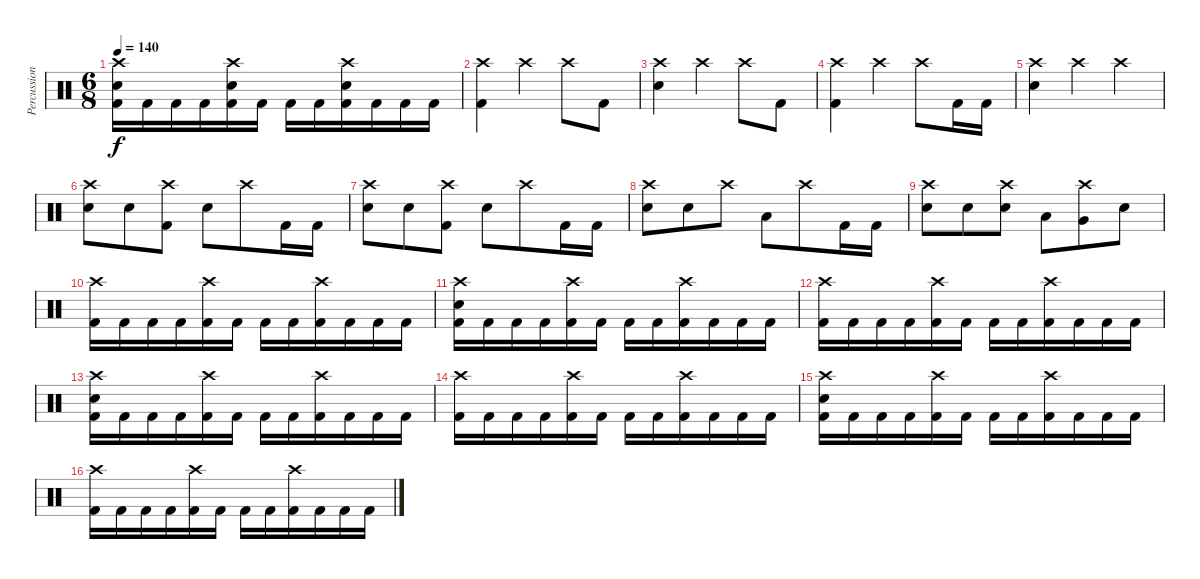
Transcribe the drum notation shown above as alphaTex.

\track ("Percussion" "Percussion") {instrument percussion}
\staff {score}
\articulation defaults
\ts (6 8)
\tempo 140
\clef neutral
\ks c
("Crash high (hit)" "Snare (hit) 2" "Kick (hit) 2").16{dy f} "Kick (hit) 2".16 "Kick (hit) 2".16 "Kick (hit) 2".16 ("Crash high (hit)" "Snare (hit) 2" "Kick (hit) 2").16 "Kick (hit) 2".16 "Kick (hit) 2".16 "Kick (hit) 2".16 ("Crash high (hit)" "Snare (hit) 2" "Kick (hit) 2").16 "Kick (hit) 2".16 "Kick (hit) 2".16 "Kick (hit) 2".16 |
("Crash high (hit)" "Kick (hit) 2").4 "Crash high (hit)".4 "Crash high (hit)".8 "Kick (hit) 2".8 |
("Crash high (hit)" "Snare (hit) 2").4 "Crash high (hit)".4 "Crash high (hit)".8 "Kick (hit) 2".8 |
("Crash high (hit)" "Kick (hit) 2").4 "Crash high (hit)".4 "Crash high (hit)".8 "Kick (hit) 2".16 "Kick (hit) 2".16 |
("Crash high (hit)" "Snare (hit) 2").4 "Crash high (hit)".4 "Crash high (hit)".4 |
("Crash high (hit)" "Snare (hit) 2").8 "Snare (hit) 2".8 ("Crash high (hit)" "Kick (hit) 2").8 "Snare (hit) 2".8 "Crash high (hit)".8 "Kick (hit) 2".16 "Kick (hit) 2".16 |
("Crash high (hit)" "Snare (hit) 2").8 "Snare (hit) 2".8 ("Crash high (hit)" "Kick (hit) 2").8 "Snare (hit) 2".8 "Crash high (hit)".8 "Kick (hit) 2".16 "Kick (hit) 2".16 |
("Crash high (hit)" "Snare (hit) 2").8 "Snare (hit) 2".8 "Crash high (hit)".8 "Low Tom (hit)".8 "Crash high (hit)".8 "Kick (hit) 2".16 "Kick (hit) 2".16 |
("Crash high (hit)" "Snare (hit) 2").8 "Snare (hit) 2".8 ("Crash high (hit)" "Snare (hit) 2").8 "Low Tom (hit)".8 ("Crash high (hit)" "Very Low Tom (hit)").8 "Snare (hit) 2".8 |
("Crash high (hit)" "Kick (hit) 2").16 "Kick (hit) 2".16 "Kick (hit) 2".16 "Kick (hit) 2".16 ("Crash high (hit)" "Kick (hit) 2").16 "Kick (hit) 2".16 "Kick (hit) 2".16 "Kick (hit) 2".16 ("Crash high (hit)" "Kick (hit) 2").16 "Kick (hit) 2".16 "Kick (hit) 2".16 "Kick (hit) 2".16 |
("Crash high (hit)" "Snare (hit) 2" "Kick (hit) 2").16 "Kick (hit) 2".16 "Kick (hit) 2".16 "Kick (hit) 2".16 ("Crash high (hit)" "Kick (hit) 2").16 "Kick (hit) 2".16 "Kick (hit) 2".16 "Kick (hit) 2".16 ("Crash high (hit)" "Kick (hit) 2").16 "Kick (hit) 2".16 "Kick (hit) 2".16 "Kick (hit) 2".16 |
("Crash high (hit)" "Kick (hit) 2").16 "Kick (hit) 2".16 "Kick (hit) 2".16 "Kick (hit) 2".16 ("Crash high (hit)" "Kick (hit) 2").16 "Kick (hit) 2".16 "Kick (hit) 2".16 "Kick (hit) 2".16 ("Crash high (hit)" "Kick (hit) 2").16 "Kick (hit) 2".16 "Kick (hit) 2".16 "Kick (hit) 2".16 |
("Crash high (hit)" "Snare (hit) 2" "Kick (hit) 2").16 "Kick (hit) 2".16 "Kick (hit) 2".16 "Kick (hit) 2".16 ("Crash high (hit)" "Kick (hit) 2").16 "Kick (hit) 2".16 "Kick (hit) 2".16 "Kick (hit) 2".16 ("Crash high (hit)" "Kick (hit) 2").16 "Kick (hit) 2".16 "Kick (hit) 2".16 "Kick (hit) 2".16 |
("Crash high (hit)" "Kick (hit) 2").16 "Kick (hit) 2".16 "Kick (hit) 2".16 "Kick (hit) 2".16 ("Crash high (hit)" "Kick (hit) 2").16 "Kick (hit) 2".16 "Kick (hit) 2".16 "Kick (hit) 2".16 ("Crash high (hit)" "Kick (hit) 2").16 "Kick (hit) 2".16 "Kick (hit) 2".16 "Kick (hit) 2".16 |
("Crash high (hit)" "Snare (hit) 2" "Kick (hit) 2").16 "Kick (hit) 2".16 "Kick (hit) 2".16 "Kick (hit) 2".16 ("Crash high (hit)" "Kick (hit) 2").16 "Kick (hit) 2".16 "Kick (hit) 2".16 "Kick (hit) 2".16 ("Crash high (hit)" "Kick (hit) 2").16 "Kick (hit) 2".16 "Kick (hit) 2".16 "Kick (hit) 2".16 |
("Crash high (hit)" "Kick (hit) 2").16 "Kick (hit) 2".16 "Kick (hit) 2".16 "Kick (hit) 2".16 ("Crash high (hit)" "Kick (hit) 2").16 "Kick (hit) 2".16 "Kick (hit) 2".16 "Kick (hit) 2".16 ("Crash high (hit)" "Kick (hit) 2").16 "Kick (hit) 2".16 "Kick (hit) 2".16 "Kick (hit) 2".16
